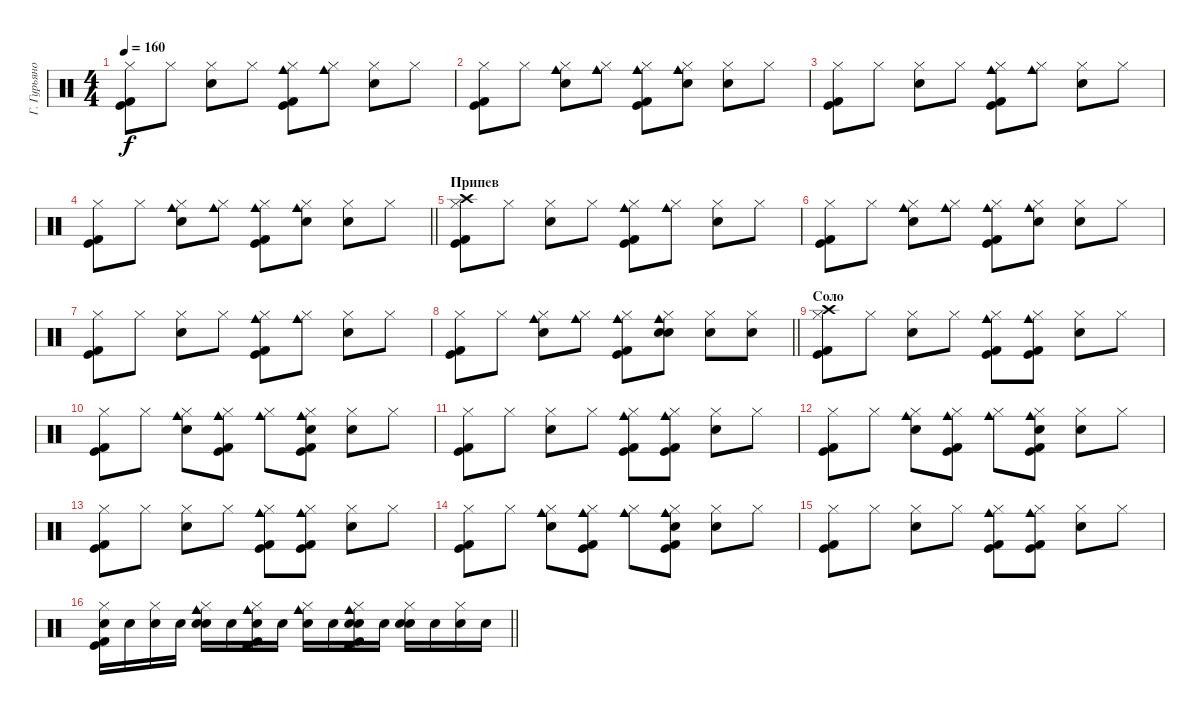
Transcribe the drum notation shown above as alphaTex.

\track ("Г. Гурьянов" "Г. Гурьяно") {instrument percussion}
\staff
\articulation defaults
\ts (4 4)
\tempo 160
\clef neutral
\ks c
("Hi-Hat (closed)" "Kick (hit)" "Kick (hit) 2").8{dy f} "Hi-Hat (closed)".8 ("Hi-Hat (closed)" "Snare (hit) 2").8 "Hi-Hat (closed)".8 ("Hi-Hat (closed)" "Cowbell medium (hit)" "Kick (hit)" "Kick (hit) 2").8 ("Hi-Hat (closed)" "Cowbell medium (hit)").8 ("Hi-Hat (closed)" "Snare (hit) 2").8 "Hi-Hat (closed)".8 |
("Hi-Hat (closed)" "Kick (hit)" "Kick (hit) 2").8 "Hi-Hat (closed)".8 ("Hi-Hat (closed)" "Cowbell medium (hit)" "Snare (hit) 2").8 ("Hi-Hat (closed)" "Cowbell medium (hit)").8 ("Hi-Hat (closed)" "Cowbell medium (hit)" "Kick (hit)" "Kick (hit) 2").8 ("Hi-Hat (closed)" "Cowbell medium (hit)" "Hand Clap (hit)").8 ("Hi-Hat (closed)" "Snare (hit) 2").8 "Hi-Hat (closed)".8 |
("Hi-Hat (closed)" "Kick (hit)" "Kick (hit) 2").8 "Hi-Hat (closed)".8 ("Hi-Hat (closed)" "Snare (hit) 2").8 "Hi-Hat (closed)".8 ("Hi-Hat (closed)" "Cowbell medium (hit)" "Kick (hit)" "Kick (hit) 2").8 ("Hi-Hat (closed)" "Cowbell medium (hit)").8 ("Hi-Hat (closed)" "Snare (hit) 2").8 "Hi-Hat (closed)".8 |
\barLineRight lightlight
("Hi-Hat (closed)" "Kick (hit)" "Kick (hit) 2").8 "Hi-Hat (closed)".8 ("Hi-Hat (closed)" "Cowbell medium (hit)" "Snare (hit) 2").8 ("Hi-Hat (closed)" "Cowbell medium (hit)").8 ("Hi-Hat (closed)" "Cowbell medium (hit)" "Kick (hit)" "Kick (hit) 2").8 ("Hi-Hat (closed)" "Cowbell medium (hit)" "Hand Clap (hit)").8 ("Hi-Hat (closed)" "Snare (hit) 2").8 "Hi-Hat (closed)".8 |
\section ("" "Припев")
("Hi-Hat (closed)" "Crash high (hit)" "Kick (hit)" "Kick (hit) 2").8 "Hi-Hat (closed)".8 ("Hi-Hat (closed)" "Snare (hit) 2").8 "Hi-Hat (closed)".8 ("Hi-Hat (closed)" "Cowbell medium (hit)" "Kick (hit)" "Kick (hit) 2").8 ("Hi-Hat (closed)" "Cowbell medium (hit)").8 ("Hi-Hat (closed)" "Snare (hit) 2").8 "Hi-Hat (closed)".8 |
("Hi-Hat (closed)" "Kick (hit)" "Kick (hit) 2").8 "Hi-Hat (closed)".8 ("Hi-Hat (closed)" "Cowbell medium (hit)" "Snare (hit) 2").8 ("Hi-Hat (closed)" "Cowbell medium (hit)").8 ("Hi-Hat (closed)" "Cowbell medium (hit)" "Kick (hit)" "Kick (hit) 2").8 ("Hi-Hat (closed)" "Cowbell medium (hit)" "Hand Clap (hit)").8 ("Hi-Hat (closed)" "Snare (hit) 2").8 "Hi-Hat (closed)".8 |
("Hi-Hat (closed)" "Kick (hit)" "Kick (hit) 2").8 "Hi-Hat (closed)".8 ("Hi-Hat (closed)" "Snare (hit) 2").8 "Hi-Hat (closed)".8 ("Hi-Hat (closed)" "Cowbell medium (hit)" "Kick (hit)" "Kick (hit) 2").8 ("Hi-Hat (closed)" "Cowbell medium (hit)").8 ("Hi-Hat (closed)" "Snare (hit) 2").8 "Hi-Hat (closed)".8 |
\barLineRight lightlight
("Hi-Hat (closed)" "Kick (hit)" "Kick (hit) 2").8 "Hi-Hat (closed)".8 ("Hi-Hat (closed)" "Cowbell medium (hit)" "Snare (hit) 2").8 ("Hi-Hat (closed)" "Cowbell medium (hit)").8 ("Hi-Hat (closed)" "Cowbell medium (hit)" "Kick (hit)" "Kick (hit) 2").8 ("Hi-Hat (closed)" "Cowbell medium (hit)" "Snare (hit) 2" "Hand Clap (hit)").8 ("Hi-Hat (closed)" "Snare (hit) 2").8 ("Hi-Hat (closed)" "Snare (hit) 2").8 |
\section ("" "Соло")
("Hi-Hat (closed)" "Crash high (hit)" "Kick (hit)" "Kick (hit) 2").8 "Hi-Hat (closed)".8 ("Hi-Hat (closed)" "Snare (hit) 2").8 "Hi-Hat (closed)".8 ("Hi-Hat (closed)" "Cowbell medium (hit)" "Kick (hit)" "Kick (hit) 2").8 ("Hi-Hat (closed)" "Cowbell medium (hit)" "Kick (hit)" "Kick (hit) 2").8 ("Hi-Hat (closed)" "Snare (hit) 2").8 "Hi-Hat (closed)".8 |
("Hi-Hat (closed)" "Kick (hit)" "Kick (hit) 2").8 "Hi-Hat (closed)".8 ("Hi-Hat (closed)" "Cowbell medium (hit)" "Snare (hit) 2").8 ("Hi-Hat (closed)" "Cowbell medium (hit)" "Kick (hit)" "Kick (hit) 2").8 ("Hi-Hat (closed)" "Cowbell medium (hit)").8 ("Hi-Hat (closed)" "Cowbell medium (hit)" "Hand Clap (hit)" "Kick (hit)" "Kick (hit) 2").8 ("Hi-Hat (closed)" "Snare (hit) 2").8 "Hi-Hat (closed)".8 |
("Hi-Hat (closed)" "Kick (hit)" "Kick (hit) 2").8 "Hi-Hat (closed)".8 ("Hi-Hat (closed)" "Snare (hit) 2").8 "Hi-Hat (closed)".8 ("Hi-Hat (closed)" "Cowbell medium (hit)" "Kick (hit)" "Kick (hit) 2").8 ("Hi-Hat (closed)" "Cowbell medium (hit)" "Kick (hit)" "Kick (hit) 2").8 ("Hi-Hat (closed)" "Snare (hit) 2").8 "Hi-Hat (closed)".8 |
("Hi-Hat (closed)" "Kick (hit)" "Kick (hit) 2").8 "Hi-Hat (closed)".8 ("Hi-Hat (closed)" "Cowbell medium (hit)" "Snare (hit) 2").8 ("Hi-Hat (closed)" "Cowbell medium (hit)" "Kick (hit)" "Kick (hit) 2").8 ("Hi-Hat (closed)" "Cowbell medium (hit)").8 ("Hi-Hat (closed)" "Cowbell medium (hit)" "Hand Clap (hit)" "Kick (hit)" "Kick (hit) 2").8 ("Hi-Hat (closed)" "Snare (hit) 2").8 "Hi-Hat (closed)".8 |
("Hi-Hat (closed)" "Kick (hit)" "Kick (hit) 2").8 "Hi-Hat (closed)".8 ("Hi-Hat (closed)" "Snare (hit) 2").8 "Hi-Hat (closed)".8 ("Hi-Hat (closed)" "Cowbell medium (hit)" "Kick (hit)" "Kick (hit) 2").8 ("Hi-Hat (closed)" "Cowbell medium (hit)" "Kick (hit)" "Kick (hit) 2").8 ("Hi-Hat (closed)" "Snare (hit) 2").8 "Hi-Hat (closed)".8 |
("Hi-Hat (closed)" "Kick (hit)" "Kick (hit) 2").8 "Hi-Hat (closed)".8 ("Hi-Hat (closed)" "Cowbell medium (hit)" "Snare (hit) 2").8 ("Hi-Hat (closed)" "Cowbell medium (hit)" "Kick (hit)" "Kick (hit) 2").8 ("Hi-Hat (closed)" "Cowbell medium (hit)").8 ("Hi-Hat (closed)" "Cowbell medium (hit)" "Hand Clap (hit)" "Kick (hit)" "Kick (hit) 2").8 ("Hi-Hat (closed)" "Snare (hit) 2").8 "Hi-Hat (closed)".8 |
("Hi-Hat (closed)" "Kick (hit)" "Kick (hit) 2").8 "Hi-Hat (closed)".8 ("Hi-Hat (closed)" "Snare (hit) 2").8 "Hi-Hat (closed)".8 ("Hi-Hat (closed)" "Cowbell medium (hit)" "Kick (hit)" "Kick (hit) 2").8 ("Hi-Hat (closed)" "Cowbell medium (hit)" "Kick (hit)" "Kick (hit) 2").8 ("Hi-Hat (closed)" "Snare (hit) 2").8 "Hi-Hat (closed)".8 |
\barLineRight lightlight
("Hi-Hat (closed)" "Electric Snare (hit)" "Kick (hit)" "Kick (hit) 2").16 "Electric Snare (hit)".16 ("Hi-Hat (closed)" "Electric Snare (hit)").16 "Electric Snare (hit)".16 ("Hi-Hat (closed)" "Electric Snare (hit)" "Snare (hit) 2" "Cowbell medium (hit)").16 "Electric Snare (hit)".16 ("Hi-Hat (closed)" "Electric Snare (hit)" "Cowbell medium (hit)" "Kick (hit)" "Kick (hit) 2").16 "Electric Snare (hit)".16 ("Hi-Hat (closed)" "Electric Snare (hit)" "Cowbell medium (hit)").16 "Electric Snare (hit)".16 ("Hi-Hat (closed)" "Electric Snare (hit)" "Kick (hit)" "Cowbell medium (hit)" "Hand Clap (hit)" "Kick (hit) 2").16 "Electric Snare (hit)".16 ("Hi-Hat (closed)" "Electric Snare (hit)" "Snare (hit) 2").16 "Electric Snare (hit)".16 ("Hi-Hat (closed)" "Electric Snare (hit)").16 "Electric Snare (hit)".16
